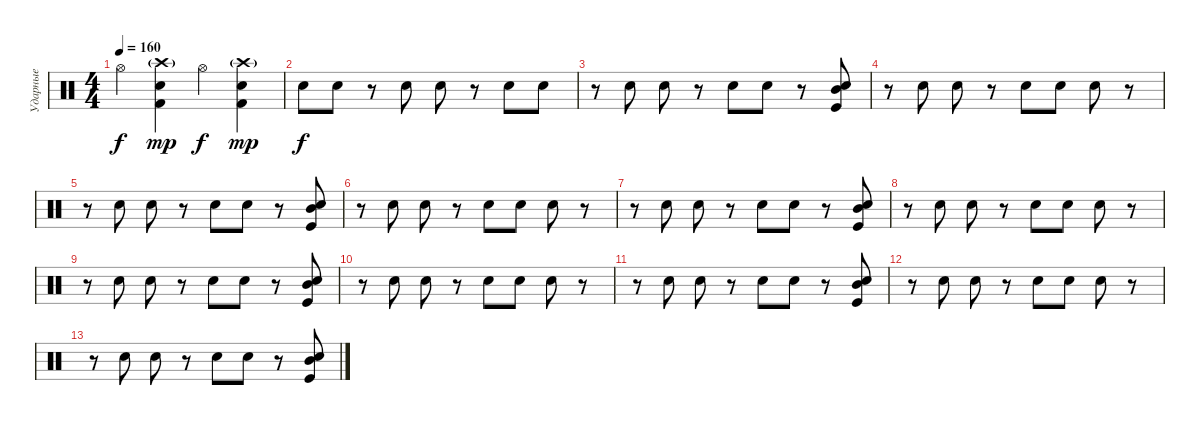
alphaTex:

\track ("Ударные" "Ударные") {instrument percussion}
\staff {score}
\articulation defaults
\ts (4 4)
\tempo 160
\clef neutral
\ks c "Hi-Hat (open)".4{dy f}
("Crash high (hit)"{g} "Kick (hit) 2" "Snare (hit) 2").4{dy mp} "Hi-Hat (open)".4{dy f} ("Crash high (hit)"{g} "Kick (hit) 2" "Snare (hit) 2").4{dy mp} |
"Electric Snare (hit)".8{dy f} "Electric Snare (hit)".8 r.8 "Electric Snare (hit)".8 "Electric Snare (hit)".8 r.8 "Electric Snare (hit)".8 "Electric Snare (hit)".8 |
r.8 "Electric Snare (hit)".8 "Electric Snare (hit)".8 r.8 "Electric Snare (hit)".8 "Electric Snare (hit)".8 r.8 ("Snare (hit) 2" "Mid Tom (hit)" "Kick (hit)").8 |
r.8 "Electric Snare (hit)".8 "Electric Snare (hit)".8 r.8 "Electric Snare (hit)".8 "Electric Snare (hit)".8 "Electric Snare (hit)".8 r.8 |
r.8 "Electric Snare (hit)".8 "Electric Snare (hit)".8 r.8 "Electric Snare (hit)".8 "Electric Snare (hit)".8 r.8 ("Snare (hit) 2" "Mid Tom (hit)" "Kick (hit)").8 |
r.8 "Electric Snare (hit)".8 "Electric Snare (hit)".8 r.8 "Electric Snare (hit)".8 "Electric Snare (hit)".8 "Electric Snare (hit)".8 r.8 |
r.8 "Electric Snare (hit)".8 "Electric Snare (hit)".8 r.8 "Electric Snare (hit)".8 "Electric Snare (hit)".8 r.8 ("Snare (hit) 2" "Mid Tom (hit)" "Kick (hit)").8 |
r.8 "Electric Snare (hit)".8 "Electric Snare (hit)".8 r.8 "Electric Snare (hit)".8 "Electric Snare (hit)".8 "Electric Snare (hit)".8 r.8 |
r.8 "Electric Snare (hit)".8 "Electric Snare (hit)".8 r.8 "Electric Snare (hit)".8 "Electric Snare (hit)".8 r.8 ("Snare (hit) 2" "Mid Tom (hit)" "Kick (hit)").8 |
r.8 "Electric Snare (hit)".8 "Electric Snare (hit)".8 r.8 "Electric Snare (hit)".8 "Electric Snare (hit)".8 "Electric Snare (hit)".8 r.8 |
r.8 "Electric Snare (hit)".8 "Electric Snare (hit)".8 r.8 "Electric Snare (hit)".8 "Electric Snare (hit)".8 r.8 ("Snare (hit) 2" "Mid Tom (hit)" "Kick (hit)").8 |
r.8 "Electric Snare (hit)".8 "Electric Snare (hit)".8 r.8 "Electric Snare (hit)".8 "Electric Snare (hit)".8 "Electric Snare (hit)".8 r.8 |
r.8 "Electric Snare (hit)".8 "Electric Snare (hit)".8 r.8 "Electric Snare (hit)".8 "Electric Snare (hit)".8 r.8 ("Snare (hit) 2" "Mid Tom (hit)" "Kick (hit)").8
